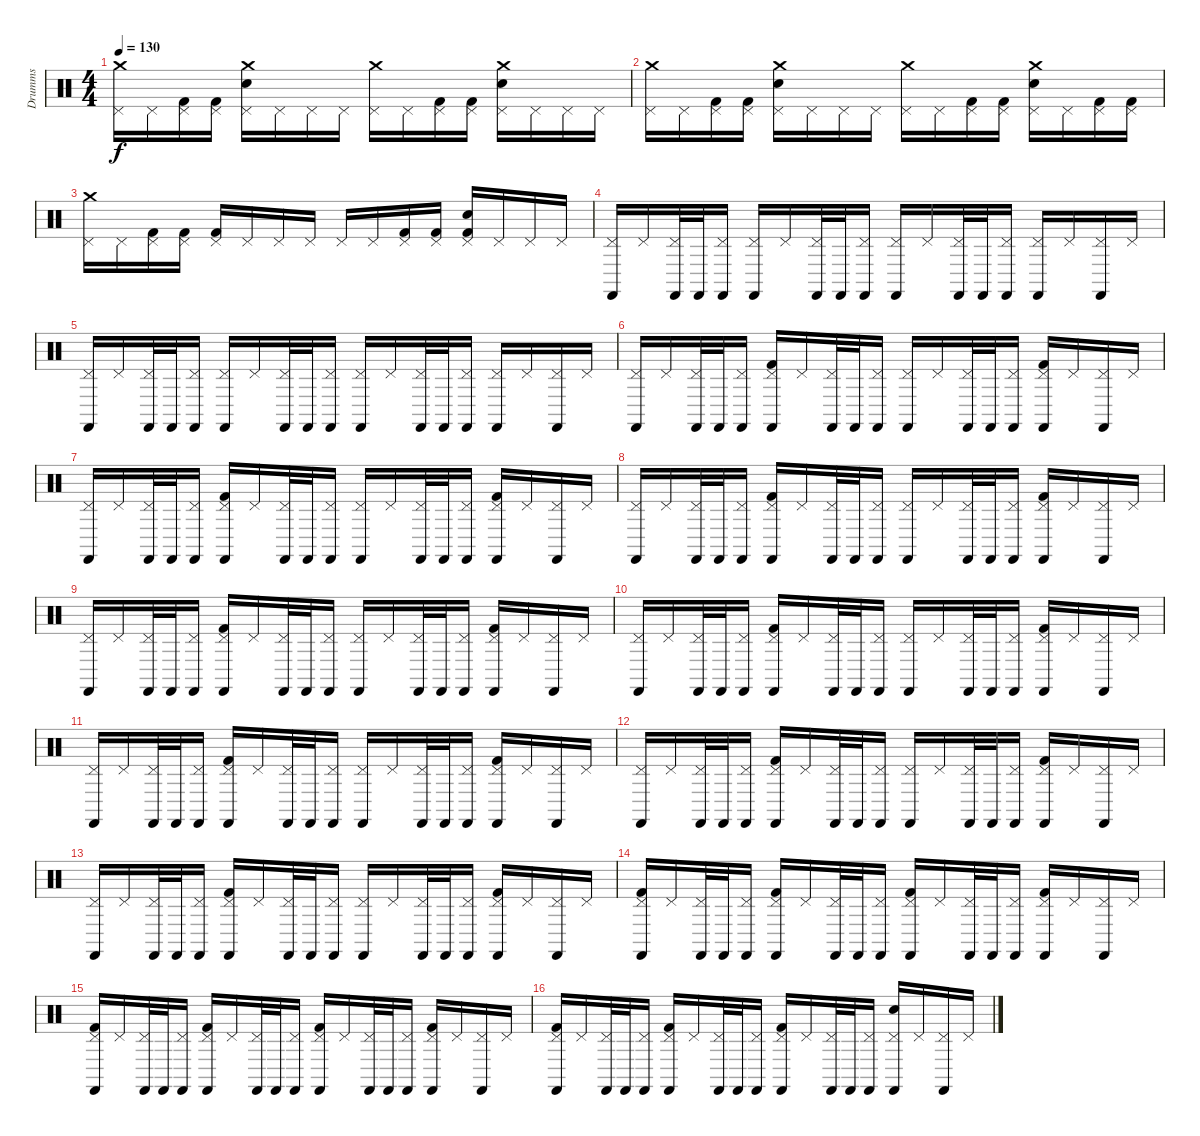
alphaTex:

\track ("Drumms" "Drumms") {instrument percussion}
\staff {score}
\articulation defaults
\ts (4 4)
\tempo 130
\clef neutral
\ks c
("Crash medium (hit)" "Pedal Hi-Hat (hit)").16{dy f} "Pedal Hi-Hat (hit)".16 ("Kick (hit) 2" "Pedal Hi-Hat (hit)").16 ("Kick (hit) 2" "Pedal Hi-Hat (hit)").16 ("Crash medium (hit)" "Electric Snare (hit)" "Pedal Hi-Hat (hit)").16 "Pedal Hi-Hat (hit)".16 "Pedal Hi-Hat (hit)".16 "Pedal Hi-Hat (hit)".16 ("Crash medium (hit)" "Pedal Hi-Hat (hit)").16 "Pedal Hi-Hat (hit)".16 ("Kick (hit) 2" "Pedal Hi-Hat (hit)").16 ("Kick (hit) 2" "Pedal Hi-Hat (hit)").16 ("Crash medium (hit)" "Electric Snare (hit)" "Pedal Hi-Hat (hit)").16 "Pedal Hi-Hat (hit)".16 "Pedal Hi-Hat (hit)".16 "Pedal Hi-Hat (hit)".16 |
("Crash medium (hit)" "Pedal Hi-Hat (hit)").16 "Pedal Hi-Hat (hit)".16 ("Kick (hit) 2" "Pedal Hi-Hat (hit)").16 ("Kick (hit) 2" "Pedal Hi-Hat (hit)").16 ("Crash medium (hit)" "Electric Snare (hit)" "Pedal Hi-Hat (hit)").16 "Pedal Hi-Hat (hit)".16 "Pedal Hi-Hat (hit)".16 "Pedal Hi-Hat (hit)".16 ("Crash medium (hit)" "Pedal Hi-Hat (hit)").16 "Pedal Hi-Hat (hit)".16 ("Kick (hit) 2" "Pedal Hi-Hat (hit)").16 ("Kick (hit) 2" "Pedal Hi-Hat (hit)").16 ("Crash medium (hit)" "Electric Snare (hit)" "Pedal Hi-Hat (hit)").16 "Pedal Hi-Hat (hit)".16 ("Kick (hit) 2" "Pedal Hi-Hat (hit)").16 ("Kick (hit) 2" "Pedal Hi-Hat (hit)").16 |
("Crash medium (hit)" "Pedal Hi-Hat (hit)").16 "Pedal Hi-Hat (hit)".16 ("Kick (hit) 2" "Pedal Hi-Hat (hit)").16 ("Kick (hit) 2" "Pedal Hi-Hat (hit)").16 ("Kick (hit) 2" "Pedal Hi-Hat (hit)").16 "Pedal Hi-Hat (hit)".16 "Pedal Hi-Hat (hit)".16 "Pedal Hi-Hat (hit)".16 "Pedal Hi-Hat (hit)".16 "Pedal Hi-Hat (hit)".16 ("Kick (hit) 2" "Pedal Hi-Hat (hit)").16 ("Kick (hit) 2" "Pedal Hi-Hat (hit)").16 ("Electric Snare (hit)" "Kick (hit) 2" "Pedal Hi-Hat (hit)").16 "Pedal Hi-Hat (hit)".16 "Pedal Hi-Hat (hit)".16 "Pedal Hi-Hat (hit)".16 |
("Castanets (hit)" "Pedal Hi-Hat (hit)").16{volume 11} "Pedal Hi-Hat (hit)".16 ("Castanets (hit)" "Pedal Hi-Hat (hit)").32 "Castanets (hit)".32 ("Castanets (hit)" "Pedal Hi-Hat (hit)").16 ("Castanets (hit)" "Pedal Hi-Hat (hit)").16 "Pedal Hi-Hat (hit)".16 ("Castanets (hit)" "Pedal Hi-Hat (hit)").32 "Castanets (hit)".32 ("Castanets (hit)" "Pedal Hi-Hat (hit)").16 ("Castanets (hit)" "Pedal Hi-Hat (hit)").16 "Pedal Hi-Hat (hit)".16 ("Castanets (hit)" "Pedal Hi-Hat (hit)").32 "Castanets (hit)".32 ("Castanets (hit)" "Pedal Hi-Hat (hit)").16 ("Castanets (hit)" "Pedal Hi-Hat (hit)").16 "Pedal Hi-Hat (hit)".16 ("Castanets (hit)" "Pedal Hi-Hat (hit)").16 "Pedal Hi-Hat (hit)".16 |
("Castanets (hit)" "Pedal Hi-Hat (hit)").16{volume 11} "Pedal Hi-Hat (hit)".16 ("Castanets (hit)" "Pedal Hi-Hat (hit)").32 "Castanets (hit)".32 ("Castanets (hit)" "Pedal Hi-Hat (hit)").16 ("Castanets (hit)" "Pedal Hi-Hat (hit)").16 "Pedal Hi-Hat (hit)".16 ("Castanets (hit)" "Pedal Hi-Hat (hit)").32 "Castanets (hit)".32 ("Castanets (hit)" "Pedal Hi-Hat (hit)").16 ("Castanets (hit)" "Pedal Hi-Hat (hit)").16 "Pedal Hi-Hat (hit)".16 ("Castanets (hit)" "Pedal Hi-Hat (hit)").32 "Castanets (hit)".32 ("Castanets (hit)" "Pedal Hi-Hat (hit)").16 ("Castanets (hit)" "Pedal Hi-Hat (hit)").16 "Pedal Hi-Hat (hit)".16 ("Castanets (hit)" "Pedal Hi-Hat (hit)").16 "Pedal Hi-Hat (hit)".16 |
("Castanets (hit)" "Pedal Hi-Hat (hit)").16{volume 11} "Pedal Hi-Hat (hit)".16 ("Castanets (hit)" "Pedal Hi-Hat (hit)").32 "Castanets (hit)".32 ("Castanets (hit)" "Pedal Hi-Hat (hit)").16 ("Castanets (hit)" "Pedal Hi-Hat (hit)" "Kick (hit) 2").16 "Pedal Hi-Hat (hit)".16 ("Castanets (hit)" "Pedal Hi-Hat (hit)").32 "Castanets (hit)".32 ("Castanets (hit)" "Pedal Hi-Hat (hit)").16 ("Castanets (hit)" "Pedal Hi-Hat (hit)").16 "Pedal Hi-Hat (hit)".16 ("Castanets (hit)" "Pedal Hi-Hat (hit)").32 "Castanets (hit)".32 ("Castanets (hit)" "Pedal Hi-Hat (hit)").16 ("Castanets (hit)" "Pedal Hi-Hat (hit)" "Kick (hit) 2").16 "Pedal Hi-Hat (hit)".16 ("Castanets (hit)" "Pedal Hi-Hat (hit)").16 "Pedal Hi-Hat (hit)".16 |
("Castanets (hit)" "Pedal Hi-Hat (hit)").16{volume 11} "Pedal Hi-Hat (hit)".16 ("Castanets (hit)" "Pedal Hi-Hat (hit)").32 "Castanets (hit)".32 ("Castanets (hit)" "Pedal Hi-Hat (hit)").16 ("Castanets (hit)" "Pedal Hi-Hat (hit)" "Kick (hit) 2").16 "Pedal Hi-Hat (hit)".16 ("Castanets (hit)" "Pedal Hi-Hat (hit)").32 "Castanets (hit)".32 ("Castanets (hit)" "Pedal Hi-Hat (hit)").16 ("Castanets (hit)" "Pedal Hi-Hat (hit)").16 "Pedal Hi-Hat (hit)".16 ("Castanets (hit)" "Pedal Hi-Hat (hit)").32 "Castanets (hit)".32 ("Castanets (hit)" "Pedal Hi-Hat (hit)").16 ("Castanets (hit)" "Pedal Hi-Hat (hit)" "Kick (hit) 2").16 "Pedal Hi-Hat (hit)".16 ("Castanets (hit)" "Pedal Hi-Hat (hit)").16 "Pedal Hi-Hat (hit)".16 |
("Castanets (hit)" "Pedal Hi-Hat (hit)").16{volume 11} "Pedal Hi-Hat (hit)".16 ("Castanets (hit)" "Pedal Hi-Hat (hit)").32 "Castanets (hit)".32 ("Castanets (hit)" "Pedal Hi-Hat (hit)").16 ("Castanets (hit)" "Pedal Hi-Hat (hit)" "Kick (hit) 2").16 "Pedal Hi-Hat (hit)".16 ("Castanets (hit)" "Pedal Hi-Hat (hit)").32 "Castanets (hit)".32 ("Castanets (hit)" "Pedal Hi-Hat (hit)").16 ("Castanets (hit)" "Pedal Hi-Hat (hit)").16 "Pedal Hi-Hat (hit)".16 ("Castanets (hit)" "Pedal Hi-Hat (hit)").32 "Castanets (hit)".32 ("Castanets (hit)" "Pedal Hi-Hat (hit)").16 ("Castanets (hit)" "Pedal Hi-Hat (hit)" "Kick (hit) 2").16 "Pedal Hi-Hat (hit)".16 ("Castanets (hit)" "Pedal Hi-Hat (hit)").16 "Pedal Hi-Hat (hit)".16 |
("Castanets (hit)" "Pedal Hi-Hat (hit)").16{volume 11} "Pedal Hi-Hat (hit)".16 ("Castanets (hit)" "Pedal Hi-Hat (hit)").32 "Castanets (hit)".32 ("Castanets (hit)" "Pedal Hi-Hat (hit)").16 ("Castanets (hit)" "Pedal Hi-Hat (hit)" "Kick (hit) 2").16 "Pedal Hi-Hat (hit)".16 ("Castanets (hit)" "Pedal Hi-Hat (hit)").32 "Castanets (hit)".32 ("Castanets (hit)" "Pedal Hi-Hat (hit)").16 ("Castanets (hit)" "Pedal Hi-Hat (hit)").16 "Pedal Hi-Hat (hit)".16 ("Castanets (hit)" "Pedal Hi-Hat (hit)").32 "Castanets (hit)".32 ("Castanets (hit)" "Pedal Hi-Hat (hit)").16 ("Castanets (hit)" "Pedal Hi-Hat (hit)" "Kick (hit) 2").16 "Pedal Hi-Hat (hit)".16 ("Castanets (hit)" "Pedal Hi-Hat (hit)").16 "Pedal Hi-Hat (hit)".16 |
("Castanets (hit)" "Pedal Hi-Hat (hit)").16{volume 11} "Pedal Hi-Hat (hit)".16 ("Castanets (hit)" "Pedal Hi-Hat (hit)").32 "Castanets (hit)".32 ("Castanets (hit)" "Pedal Hi-Hat (hit)").16 ("Castanets (hit)" "Pedal Hi-Hat (hit)" "Kick (hit) 2").16 "Pedal Hi-Hat (hit)".16 ("Castanets (hit)" "Pedal Hi-Hat (hit)").32 "Castanets (hit)".32 ("Castanets (hit)" "Pedal Hi-Hat (hit)").16 ("Castanets (hit)" "Pedal Hi-Hat (hit)").16 "Pedal Hi-Hat (hit)".16 ("Castanets (hit)" "Pedal Hi-Hat (hit)").32 "Castanets (hit)".32 ("Castanets (hit)" "Pedal Hi-Hat (hit)").16 ("Castanets (hit)" "Pedal Hi-Hat (hit)" "Kick (hit) 2").16 "Pedal Hi-Hat (hit)".16 ("Castanets (hit)" "Pedal Hi-Hat (hit)").16 "Pedal Hi-Hat (hit)".16 |
("Castanets (hit)" "Pedal Hi-Hat (hit)").16{volume 11} "Pedal Hi-Hat (hit)".16 ("Castanets (hit)" "Pedal Hi-Hat (hit)").32 "Castanets (hit)".32 ("Castanets (hit)" "Pedal Hi-Hat (hit)").16 ("Castanets (hit)" "Pedal Hi-Hat (hit)" "Kick (hit) 2").16 "Pedal Hi-Hat (hit)".16 ("Castanets (hit)" "Pedal Hi-Hat (hit)").32 "Castanets (hit)".32 ("Castanets (hit)" "Pedal Hi-Hat (hit)").16 ("Castanets (hit)" "Pedal Hi-Hat (hit)").16 "Pedal Hi-Hat (hit)".16 ("Castanets (hit)" "Pedal Hi-Hat (hit)").32 "Castanets (hit)".32 ("Castanets (hit)" "Pedal Hi-Hat (hit)").16 ("Castanets (hit)" "Pedal Hi-Hat (hit)" "Kick (hit) 2").16 "Pedal Hi-Hat (hit)".16 ("Castanets (hit)" "Pedal Hi-Hat (hit)").16 "Pedal Hi-Hat (hit)".16 |
("Castanets (hit)" "Pedal Hi-Hat (hit)").16{volume 11} "Pedal Hi-Hat (hit)".16 ("Castanets (hit)" "Pedal Hi-Hat (hit)").32 "Castanets (hit)".32 ("Castanets (hit)" "Pedal Hi-Hat (hit)").16 ("Castanets (hit)" "Pedal Hi-Hat (hit)" "Kick (hit) 2").16 "Pedal Hi-Hat (hit)".16 ("Castanets (hit)" "Pedal Hi-Hat (hit)").32 "Castanets (hit)".32 ("Castanets (hit)" "Pedal Hi-Hat (hit)").16 ("Castanets (hit)" "Pedal Hi-Hat (hit)").16 "Pedal Hi-Hat (hit)".16 ("Castanets (hit)" "Pedal Hi-Hat (hit)").32 "Castanets (hit)".32 ("Castanets (hit)" "Pedal Hi-Hat (hit)").16 ("Castanets (hit)" "Pedal Hi-Hat (hit)" "Kick (hit) 2").16 "Pedal Hi-Hat (hit)".16 ("Castanets (hit)" "Pedal Hi-Hat (hit)").16 "Pedal Hi-Hat (hit)".16 |
("Castanets (hit)" "Pedal Hi-Hat (hit)").16{volume 11} "Pedal Hi-Hat (hit)".16 ("Castanets (hit)" "Pedal Hi-Hat (hit)").32 "Castanets (hit)".32 ("Castanets (hit)" "Pedal Hi-Hat (hit)").16 ("Castanets (hit)" "Pedal Hi-Hat (hit)" "Kick (hit) 2").16 "Pedal Hi-Hat (hit)".16 ("Castanets (hit)" "Pedal Hi-Hat (hit)").32 "Castanets (hit)".32 ("Castanets (hit)" "Pedal Hi-Hat (hit)").16 ("Castanets (hit)" "Pedal Hi-Hat (hit)").16 "Pedal Hi-Hat (hit)".16 ("Castanets (hit)" "Pedal Hi-Hat (hit)").32 "Castanets (hit)".32 ("Castanets (hit)" "Pedal Hi-Hat (hit)").16 ("Castanets (hit)" "Pedal Hi-Hat (hit)" "Kick (hit) 2").16 "Pedal Hi-Hat (hit)".16 ("Castanets (hit)" "Pedal Hi-Hat (hit)").16 "Pedal Hi-Hat (hit)".16 |
("Castanets (hit)" "Pedal Hi-Hat (hit)" "Kick (hit) 2").16{volume 11} "Pedal Hi-Hat (hit)".16 ("Castanets (hit)" "Pedal Hi-Hat (hit)").32 "Castanets (hit)".32 ("Castanets (hit)" "Pedal Hi-Hat (hit)").16 ("Castanets (hit)" "Pedal Hi-Hat (hit)" "Kick (hit) 2").16 "Pedal Hi-Hat (hit)".16 ("Castanets (hit)" "Pedal Hi-Hat (hit)").32 "Castanets (hit)".32 ("Castanets (hit)" "Pedal Hi-Hat (hit)").16 ("Castanets (hit)" "Pedal Hi-Hat (hit)" "Kick (hit) 2").16 "Pedal Hi-Hat (hit)".16 ("Castanets (hit)" "Pedal Hi-Hat (hit)").32 "Castanets (hit)".32 ("Castanets (hit)" "Pedal Hi-Hat (hit)").16 ("Castanets (hit)" "Pedal Hi-Hat (hit)" "Kick (hit) 2").16 "Pedal Hi-Hat (hit)".16 ("Castanets (hit)" "Pedal Hi-Hat (hit)").16 "Pedal Hi-Hat (hit)".16 |
("Castanets (hit)" "Pedal Hi-Hat (hit)" "Kick (hit) 2").16{volume 11} "Pedal Hi-Hat (hit)".16 ("Castanets (hit)" "Pedal Hi-Hat (hit)").32 "Castanets (hit)".32 ("Castanets (hit)" "Pedal Hi-Hat (hit)").16 ("Castanets (hit)" "Pedal Hi-Hat (hit)" "Kick (hit) 2").16 "Pedal Hi-Hat (hit)".16 ("Castanets (hit)" "Pedal Hi-Hat (hit)").32 "Castanets (hit)".32 ("Castanets (hit)" "Pedal Hi-Hat (hit)").16 ("Castanets (hit)" "Pedal Hi-Hat (hit)" "Kick (hit) 2").16 "Pedal Hi-Hat (hit)".16 ("Castanets (hit)" "Pedal Hi-Hat (hit)").32 "Castanets (hit)".32 ("Castanets (hit)" "Pedal Hi-Hat (hit)").16 ("Castanets (hit)" "Pedal Hi-Hat (hit)" "Kick (hit) 2").16 "Pedal Hi-Hat (hit)".16 ("Castanets (hit)" "Pedal Hi-Hat (hit)").16 "Pedal Hi-Hat (hit)".16 |
("Castanets (hit)" "Pedal Hi-Hat (hit)" "Kick (hit) 2").16{volume 11} "Pedal Hi-Hat (hit)".16 ("Castanets (hit)" "Pedal Hi-Hat (hit)").32 "Castanets (hit)".32 ("Castanets (hit)" "Pedal Hi-Hat (hit)").16 ("Castanets (hit)" "Pedal Hi-Hat (hit)" "Kick (hit) 2").16 "Pedal Hi-Hat (hit)".16 ("Castanets (hit)" "Pedal Hi-Hat (hit)").32 "Castanets (hit)".32 ("Castanets (hit)" "Pedal Hi-Hat (hit)").16 ("Castanets (hit)" "Pedal Hi-Hat (hit)" "Kick (hit) 2").16 "Pedal Hi-Hat (hit)".16 ("Castanets (hit)" "Pedal Hi-Hat (hit)").32 "Castanets (hit)".32 ("Castanets (hit)" "Pedal Hi-Hat (hit)").16 ("Castanets (hit)" "Pedal Hi-Hat (hit)" "Electric Snare (hit)").16 "Pedal Hi-Hat (hit)".16 ("Castanets (hit)" "Pedal Hi-Hat (hit)").16 "Pedal Hi-Hat (hit)".16
